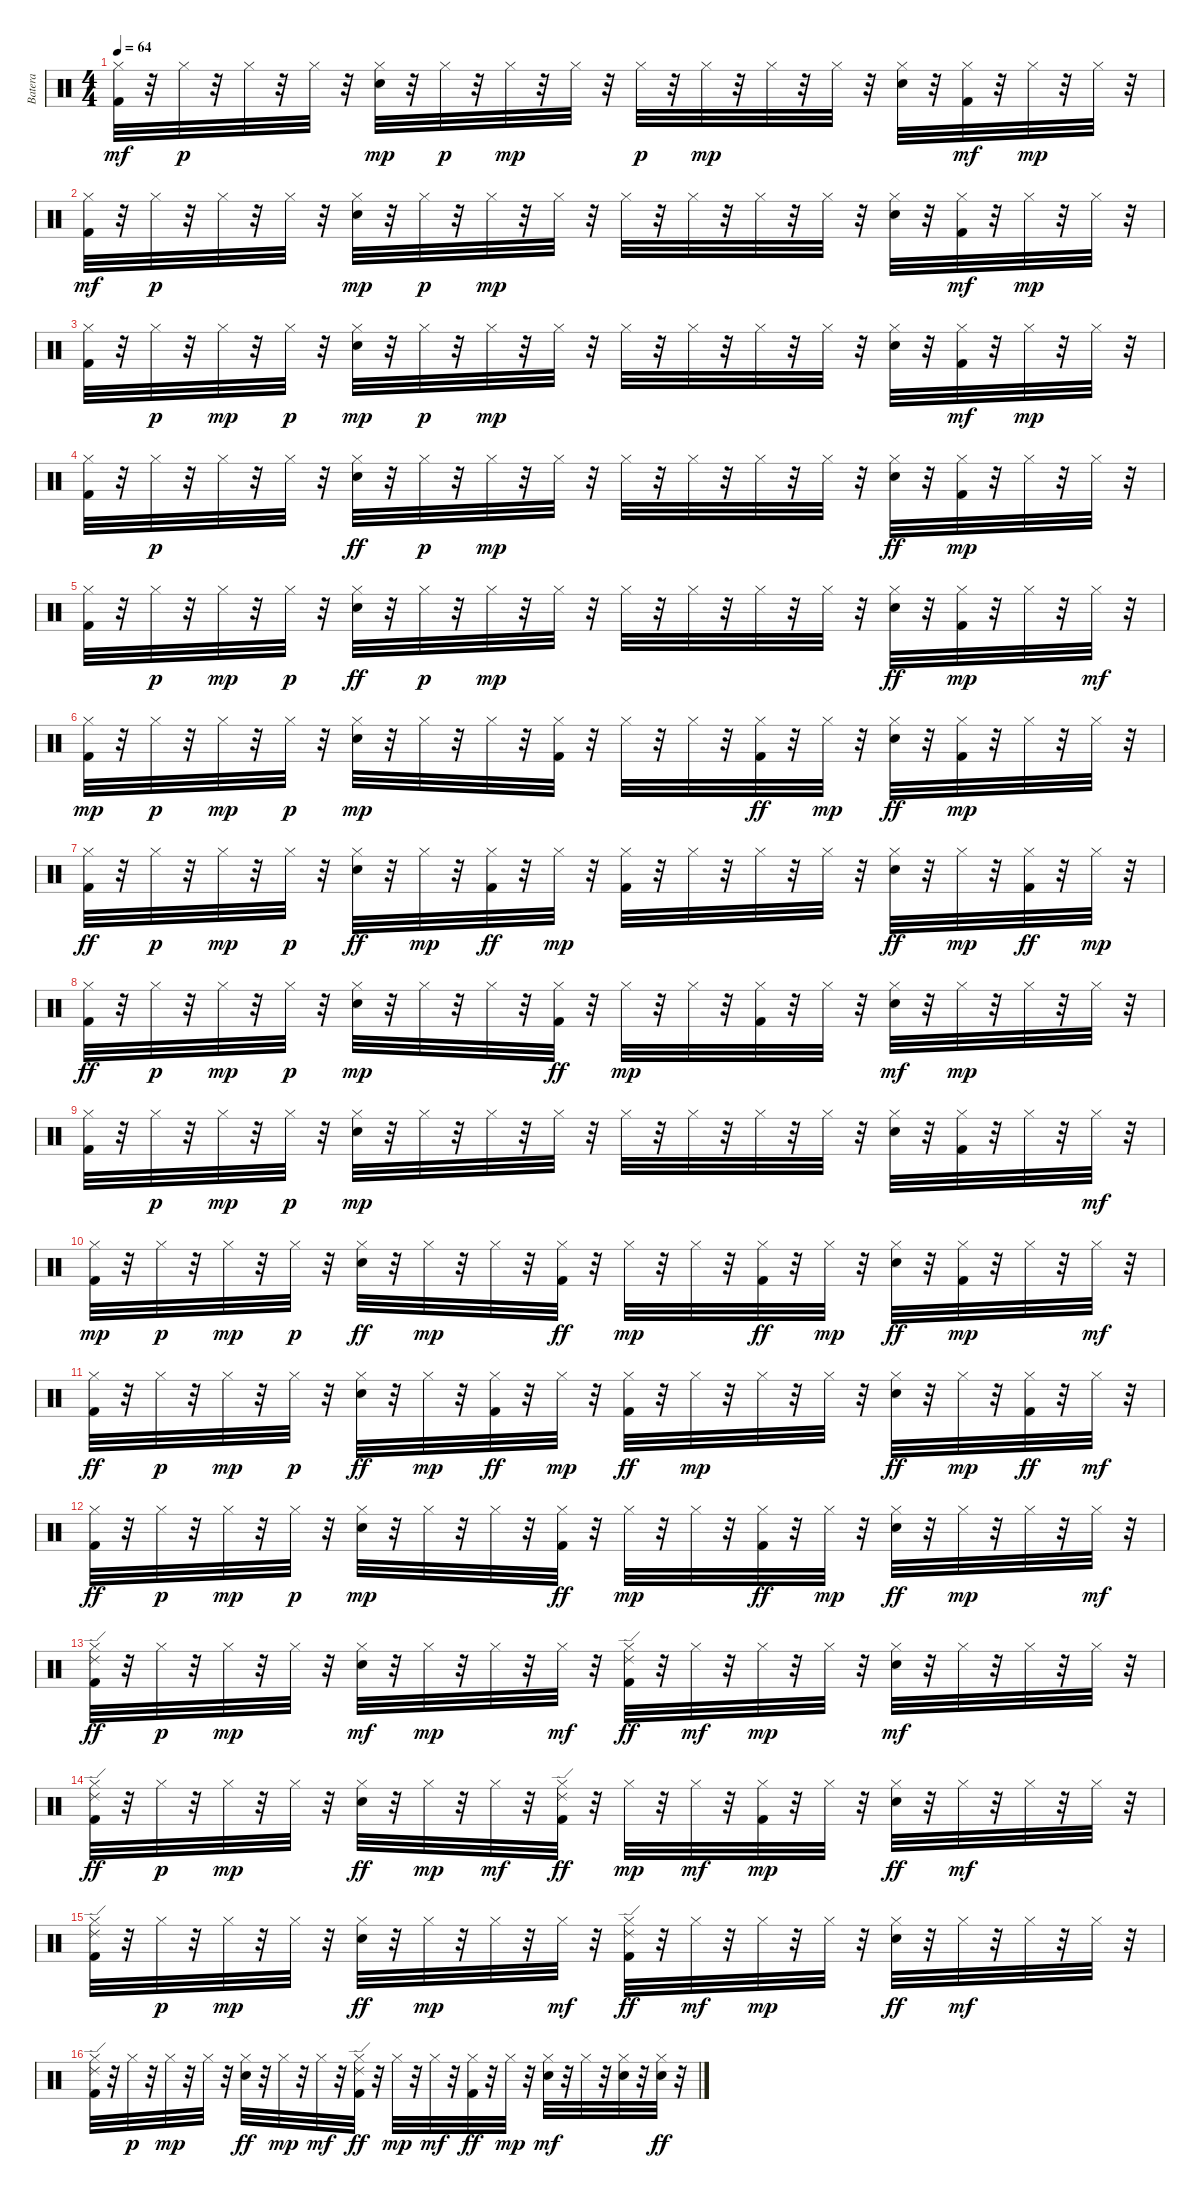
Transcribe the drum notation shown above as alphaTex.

\track ("Batera" "Batera") {instrument percussion}
\staff {score}
\articulation defaults
\ts (4 4)
\tempo 64
\clef neutral
\ks c
("Hi-Hat (closed)" "Kick (hit) 2").32{dy mf} r.32 "Hi-Hat (closed)".32{dy p} r.32 "Hi-Hat (closed)".32 r.32 "Hi-Hat (closed)".32 r.32 ("Hi-Hat (closed)" "Snare (hit) 2").32{dy mp} r.32 "Hi-Hat (closed)".32{dy p} r.32 "Hi-Hat (closed)".32{dy mp} r.32 "Hi-Hat (closed)".32 r.32 "Hi-Hat (closed)".32{dy p} r.32 "Hi-Hat (closed)".32{dy mp} r.32 "Hi-Hat (closed)".32 r.32 "Hi-Hat (closed)".32 r.32 ("Hi-Hat (closed)" "Snare (hit) 2").32 r.32 ("Hi-Hat (closed)" "Kick (hit) 2").32{dy mf} r.32 "Hi-Hat (closed)".32{dy mp} r.32 "Hi-Hat (closed)".32 r.32 |
("Hi-Hat (closed)" "Kick (hit) 2").32{dy mf} r.32 "Hi-Hat (closed)".32{dy p} r.32 "Hi-Hat (closed)".32 r.32 "Hi-Hat (closed)".32 r.32 ("Hi-Hat (closed)" "Snare (hit) 2").32{dy mp} r.32 "Hi-Hat (closed)".32{dy p} r.32 "Hi-Hat (closed)".32{dy mp} r.32 "Hi-Hat (closed)".32 r.32 "Hi-Hat (closed)".32 r.32 "Hi-Hat (closed)".32 r.32 "Hi-Hat (closed)".32 r.32 "Hi-Hat (closed)".32 r.32 ("Hi-Hat (closed)" "Snare (hit) 2").32 r.32 ("Hi-Hat (closed)" "Kick (hit) 2").32{dy mf} r.32 "Hi-Hat (closed)".32{dy mp} r.32 "Hi-Hat (closed)".32 r.32 |
("Hi-Hat (closed)" "Kick (hit) 2").32 r.32 "Hi-Hat (closed)".32{dy p} r.32 "Hi-Hat (closed)".32{dy mp} r.32 "Hi-Hat (closed)".32{dy p} r.32 ("Hi-Hat (closed)" "Snare (hit) 2").32{dy mp} r.32 "Hi-Hat (closed)".32{dy p} r.32 "Hi-Hat (closed)".32{dy mp} r.32 "Hi-Hat (closed)".32 r.32 "Hi-Hat (closed)".32 r.32 "Hi-Hat (closed)".32 r.32 "Hi-Hat (closed)".32 r.32 "Hi-Hat (closed)".32 r.32 ("Hi-Hat (closed)" "Snare (hit) 2").32 r.32 ("Hi-Hat (closed)" "Kick (hit) 2").32{dy mf} r.32 "Hi-Hat (closed)".32{dy mp} r.32 "Hi-Hat (closed)".32 r.32 |
("Hi-Hat (closed)" "Kick (hit) 2").32 r.32 "Hi-Hat (closed)".32{dy p} r.32 "Hi-Hat (closed)".32 r.32 "Hi-Hat (closed)".32 r.32 ("Hi-Hat (closed)" "Snare (hit) 2").32{dy ff} r.32 "Hi-Hat (closed)".32{dy p} r.32 "Hi-Hat (closed)".32{dy mp} r.32 "Hi-Hat (closed)".32 r.32 "Hi-Hat (closed)".32 r.32 "Hi-Hat (closed)".32 r.32 "Hi-Hat (closed)".32 r.32 "Hi-Hat (closed)".32 r.32 ("Hi-Hat (closed)" "Snare (hit) 2").32{dy ff} r.32 ("Hi-Hat (closed)" "Kick (hit) 2").32{dy mp} r.32 "Hi-Hat (closed)".32 r.32 "Hi-Hat (closed)".32 r.32 |
("Hi-Hat (closed)" "Kick (hit) 2").32 r.32 "Hi-Hat (closed)".32{dy p} r.32 "Hi-Hat (closed)".32{dy mp} r.32 "Hi-Hat (closed)".32{dy p} r.32 ("Hi-Hat (closed)" "Snare (hit) 2").32{dy ff} r.32 "Hi-Hat (closed)".32{dy p} r.32 "Hi-Hat (closed)".32{dy mp} r.32 "Hi-Hat (closed)".32 r.32 "Hi-Hat (closed)".32 r.32 "Hi-Hat (closed)".32 r.32 "Hi-Hat (closed)".32 r.32 "Hi-Hat (closed)".32 r.32 ("Hi-Hat (closed)" "Snare (hit) 2").32{dy ff} r.32 ("Hi-Hat (closed)" "Kick (hit) 2").32{dy mp} r.32 "Hi-Hat (closed)".32 r.32 "Hi-Hat (closed)".32{dy mf} r.32 |
("Hi-Hat (closed)" "Kick (hit) 2").32{dy mp} r.32 "Hi-Hat (closed)".32{dy p} r.32 "Hi-Hat (closed)".32{dy mp} r.32 "Hi-Hat (closed)".32{dy p} r.32 ("Hi-Hat (closed)" "Snare (hit) 2").32{dy mp} r.32 "Hi-Hat (closed)".32 r.32 "Hi-Hat (closed)".32 r.32 ("Hi-Hat (closed)" "Kick (hit) 2").32 r.32 "Hi-Hat (closed)".32 r.32 "Hi-Hat (closed)".32 r.32 ("Hi-Hat (closed)" "Kick (hit) 2").32{dy ff} r.32 "Hi-Hat (closed)".32{dy mp} r.32 ("Hi-Hat (closed)" "Snare (hit) 2").32{dy ff} r.32 ("Hi-Hat (closed)" "Kick (hit) 2").32{dy mp} r.32 "Hi-Hat (closed)".32 r.32 "Hi-Hat (closed)".32 r.32 |
("Hi-Hat (closed)" "Kick (hit) 2").32{dy ff} r.32 "Hi-Hat (closed)".32{dy p} r.32 "Hi-Hat (closed)".32{dy mp} r.32 "Hi-Hat (closed)".32{dy p} r.32 ("Hi-Hat (closed)" "Snare (hit) 2").32{dy ff} r.32 "Hi-Hat (closed)".32{dy mp} r.32 ("Hi-Hat (closed)" "Kick (hit) 2").32{dy ff} r.32 "Hi-Hat (closed)".32{dy mp} r.32 ("Hi-Hat (closed)" "Kick (hit) 2").32 r.32 "Hi-Hat (closed)".32 r.32 "Hi-Hat (closed)".32 r.32 "Hi-Hat (closed)".32 r.32 ("Hi-Hat (closed)" "Snare (hit) 2").32{dy ff} r.32 "Hi-Hat (closed)".32{dy mp} r.32 ("Hi-Hat (closed)" "Kick (hit) 2").32{dy ff} r.32 "Hi-Hat (closed)".32{dy mp} r.32 |
("Hi-Hat (closed)" "Kick (hit) 2").32{dy ff} r.32 "Hi-Hat (closed)".32{dy p} r.32 "Hi-Hat (closed)".32{dy mp} r.32 "Hi-Hat (closed)".32{dy p} r.32 ("Hi-Hat (closed)" "Snare (hit) 2").32{dy mp} r.32 "Hi-Hat (closed)".32 r.32 "Hi-Hat (closed)".32 r.32 ("Hi-Hat (closed)" "Kick (hit) 2").32{dy ff} r.32 "Hi-Hat (closed)".32{dy mp} r.32 "Hi-Hat (closed)".32 r.32 ("Hi-Hat (closed)" "Kick (hit) 2").32 r.32 "Hi-Hat (closed)".32 r.32 ("Hi-Hat (closed)" "Snare (hit) 2").32{dy mf} r.32 "Hi-Hat (closed)".32{dy mp} r.32 "Hi-Hat (closed)".32 r.32 "Hi-Hat (closed)".32 r.32 |
("Hi-Hat (closed)" "Kick (hit) 2").32 r.32 "Hi-Hat (closed)".32{dy p} r.32 "Hi-Hat (closed)".32{dy mp} r.32 "Hi-Hat (closed)".32{dy p} r.32 ("Hi-Hat (closed)" "Snare (hit) 2").32{dy mp} r.32 "Hi-Hat (closed)".32 r.32 "Hi-Hat (closed)".32 r.32 "Hi-Hat (closed)".32 r.32 "Hi-Hat (closed)".32 r.32 "Hi-Hat (closed)".32 r.32 "Hi-Hat (closed)".32 r.32 "Hi-Hat (closed)".32 r.32 ("Hi-Hat (closed)" "Snare (hit) 2").32 r.32 ("Hi-Hat (closed)" "Kick (hit) 2").32 r.32 "Hi-Hat (closed)".32 r.32 "Hi-Hat (closed)".32{dy mf} r.32 |
("Hi-Hat (closed)" "Kick (hit) 2").32{dy mp} r.32 "Hi-Hat (closed)".32{dy p} r.32 "Hi-Hat (closed)".32{dy mp} r.32 "Hi-Hat (closed)".32{dy p} r.32 ("Hi-Hat (closed)" "Snare (hit) 2").32{dy ff} r.32 "Hi-Hat (closed)".32{dy mp} r.32 "Hi-Hat (closed)".32 r.32 ("Hi-Hat (closed)" "Kick (hit) 2").32{dy ff} r.32 "Hi-Hat (closed)".32{dy mp} r.32 "Hi-Hat (closed)".32 r.32 ("Hi-Hat (closed)" "Kick (hit) 2").32{dy ff} r.32 "Hi-Hat (closed)".32{dy mp} r.32 ("Hi-Hat (closed)" "Snare (hit) 2").32{dy ff} r.32 ("Hi-Hat (closed)" "Kick (hit) 2").32{dy mp} r.32 "Hi-Hat (closed)".32 r.32 "Hi-Hat (closed)".32{dy mf} r.32 |
("Hi-Hat (closed)" "Kick (hit) 2").32{dy ff} r.32 "Hi-Hat (closed)".32{dy p} r.32 "Hi-Hat (closed)".32{dy mp} r.32 "Hi-Hat (closed)".32{dy p} r.32 ("Hi-Hat (closed)" "Snare (hit) 2").32{dy ff} r.32 "Hi-Hat (closed)".32{dy mp} r.32 ("Hi-Hat (closed)" "Kick (hit) 2").32{dy ff} r.32 "Hi-Hat (closed)".32{dy mp} r.32 ("Hi-Hat (closed)" "Kick (hit) 2").32{dy ff} r.32 "Hi-Hat (closed)".32{dy mp} r.32 "Hi-Hat (closed)".32 r.32 "Hi-Hat (closed)".32 r.32 ("Hi-Hat (closed)" "Snare (hit) 2").32{dy ff} r.32 "Hi-Hat (closed)".32{dy mp} r.32 ("Hi-Hat (closed)" "Kick (hit) 2").32{dy ff} r.32 "Hi-Hat (closed)".32{dy mf} r.32 |
("Hi-Hat (closed)" "Kick (hit) 2").32{dy ff} r.32 "Hi-Hat (closed)".32{dy p} r.32 "Hi-Hat (closed)".32{dy mp} r.32 "Hi-Hat (closed)".32{dy p} r.32 ("Hi-Hat (closed)" "Snare (hit) 2").32{dy mp} r.32 "Hi-Hat (closed)".32 r.32 "Hi-Hat (closed)".32 r.32 ("Hi-Hat (closed)" "Kick (hit) 2").32{dy ff} r.32 "Hi-Hat (closed)".32{dy mp} r.32 "Hi-Hat (closed)".32 r.32 ("Hi-Hat (closed)" "Kick (hit) 2").32{dy ff} r.32 "Hi-Hat (closed)".32{dy mp} r.32 ("Hi-Hat (closed)" "Snare (hit) 2").32{dy ff} r.32 "Hi-Hat (closed)".32{dy mp} r.32 "Hi-Hat (closed)".32 r.32 "Hi-Hat (closed)".32{dy mf} r.32 |
("Hi-Hat (closed)" "Ride (edge) 2" "Kick (hit) 2").32{dy ff} r.32 "Hi-Hat (closed)".32{dy p} r.32 "Hi-Hat (closed)".32{dy mp} r.32 "Hi-Hat (closed)".32 r.32 ("Hi-Hat (closed)" "Snare (hit) 2").32{dy mf} r.32 "Hi-Hat (closed)".32{dy mp} r.32 "Hi-Hat (closed)".32 r.32 "Hi-Hat (closed)".32{dy mf} r.32 ("Hi-Hat (closed)" "Ride (edge) 2" "Kick (hit) 2").32{dy ff} r.32 "Hi-Hat (closed)".32{dy mf} r.32 "Hi-Hat (closed)".32{dy mp} r.32 "Hi-Hat (closed)".32 r.32 ("Hi-Hat (closed)" "Snare (hit) 2").32{dy mf} r.32 "Hi-Hat (closed)".32 r.32 "Hi-Hat (closed)".32 r.32 "Hi-Hat (closed)".32 r.32 |
("Hi-Hat (closed)" "Kick (hit) 2" "Ride (edge) 2").32{dy ff} r.32 "Hi-Hat (closed)".32{dy p} r.32 "Hi-Hat (closed)".32{dy mp} r.32 "Hi-Hat (closed)".32 r.32 ("Hi-Hat (closed)" "Snare (hit) 2").32{dy ff} r.32 "Hi-Hat (closed)".32{dy mp} r.32 "Hi-Hat (closed)".32{dy mf} r.32 ("Hi-Hat (closed)" "Kick (hit) 2" "Ride (edge) 2").32{dy ff} r.32 "Hi-Hat (closed)".32{dy mp} r.32 "Hi-Hat (closed)".32{dy mf} r.32 ("Hi-Hat (closed)" "Kick (hit) 2").32{dy mp} r.32 "Hi-Hat (closed)".32 r.32 ("Hi-Hat (closed)" "Snare (hit) 2").32{dy ff} r.32 "Hi-Hat (closed)".32{dy mf} r.32 "Hi-Hat (closed)".32 r.32 "Hi-Hat (closed)".32 r.32 |
("Hi-Hat (closed)" "Kick (hit) 2" "Ride (edge) 2").32 r.32 "Hi-Hat (closed)".32{dy p} r.32 "Hi-Hat (closed)".32{dy mp} r.32 "Hi-Hat (closed)".32 r.32 ("Hi-Hat (closed)" "Snare (hit) 2").32{dy ff} r.32 "Hi-Hat (closed)".32{dy mp} r.32 "Hi-Hat (closed)".32 r.32 "Hi-Hat (closed)".32{dy mf} r.32 ("Hi-Hat (closed)" "Ride (edge) 2" "Kick (hit) 2").32{dy ff} r.32 "Hi-Hat (closed)".32{dy mf} r.32 "Hi-Hat (closed)".32{dy mp} r.32 "Hi-Hat (closed)".32 r.32 ("Hi-Hat (closed)" "Snare (hit) 2").32{dy ff} r.32 "Hi-Hat (closed)".32{dy mf} r.32 "Hi-Hat (closed)".32 r.32 "Hi-Hat (closed)".32 r.32 |
("Hi-Hat (closed)" "Kick (hit) 2" "Ride (edge) 2").32 r.32 "Hi-Hat (closed)".32{dy p} r.32 "Hi-Hat (closed)".32{dy mp} r.32 "Hi-Hat (closed)".32 r.32 ("Hi-Hat (closed)" "Snare (hit) 2").32{dy ff} r.32 "Hi-Hat (closed)".32{dy mp} r.32 "Hi-Hat (closed)".32{dy mf} r.32 ("Hi-Hat (closed)" "Kick (hit) 2" "Ride (edge) 2").32{dy ff} r.32 "Hi-Hat (closed)".32{dy mp} r.32 "Hi-Hat (closed)".32{dy mf} r.32 ("Hi-Hat (closed)" "Kick (hit) 2").32{dy ff} r.32 "Hi-Hat (closed)".32{dy mp} r.32 ("Hi-Hat (closed)" "Snare (hit) 2").32{dy mf} r.32 "Hi-Hat (closed)".32 r.32 ("Hi-Hat (closed)" "Snare (hit) 2").32 r.32 ("Hi-Hat (closed)" "Snare (hit) 2").32{dy ff} r.32
